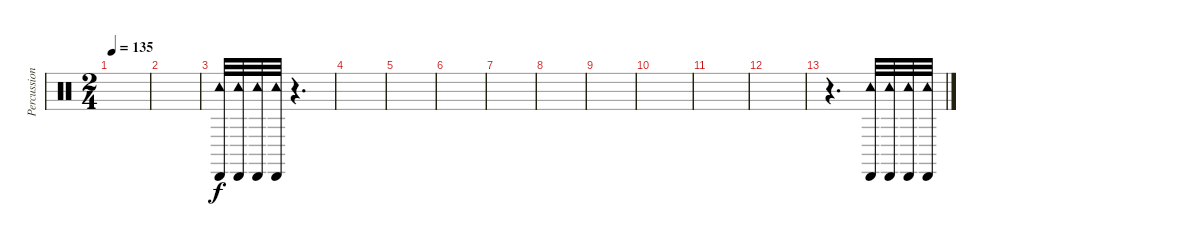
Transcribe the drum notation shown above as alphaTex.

\track ("Percussions" "Percussion") {instrument percussion}
\staff {score}
\articulation defaults
\ts (2 4)
\tempo 135
\clef neutral
\ks c
|
|
("Tambourine (hit)" "Cabasa (hit)").32 ("Tambourine (hit)" "Cabasa (hit)").32 ("Tambourine (hit)" "Cabasa (hit)").32 ("Tambourine (hit)" "Cabasa (hit)").32 r.4{d} |
|
|
|
|
|
|
|
|
|
r.4{d} ("Tambourine (hit)" "Cabasa (hit)").32 ("Tambourine (hit)" "Cabasa (hit)").32 ("Tambourine (hit)" "Cabasa (hit)").32 ("Tambourine (hit)" "Cabasa (hit)").32
